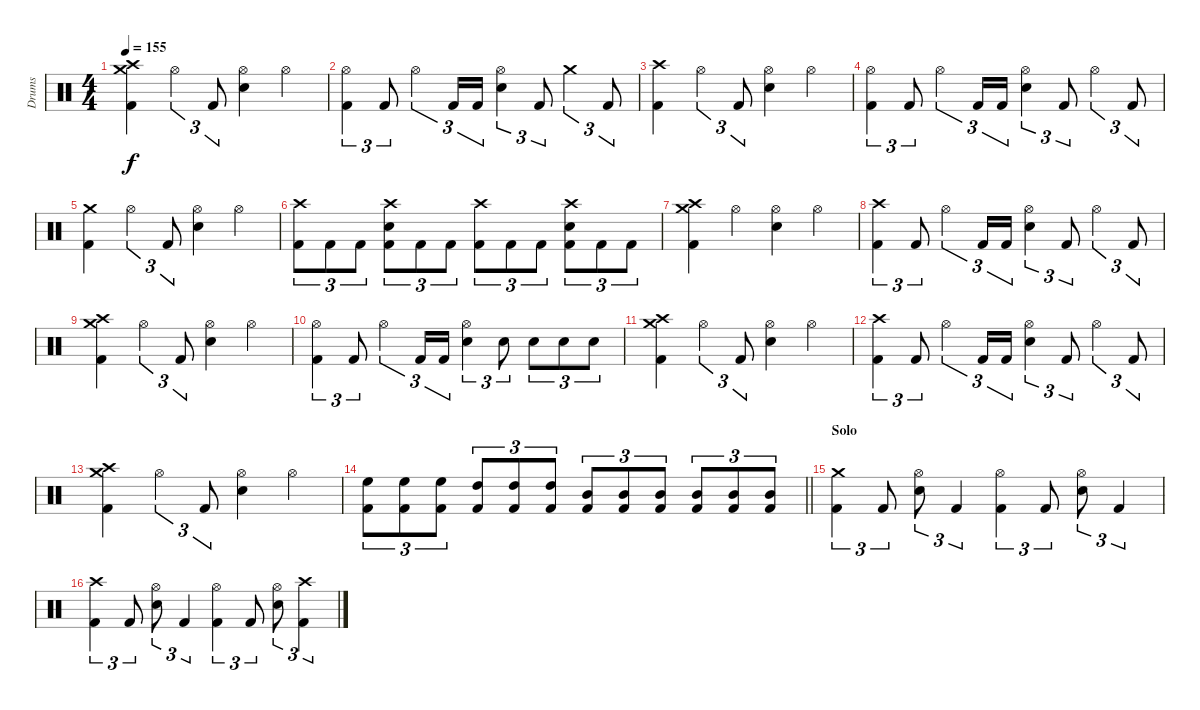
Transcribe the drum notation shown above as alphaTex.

\track ("Drums" "Drums") {instrument percussion}
\staff {score}
\articulation defaults
\ts (4 4)
\tempo 155
\clef neutral
\ks c
("Crash high (hit)" "Crash medium (hit)" "Kick (hit) 2").4{dy f} "Hi-Hat (open)".4{tu (3 2)} "Kick (hit) 2".8{tu (3 2)} ("Hi-Hat (open)" "Electric Snare (hit)").4 "Hi-Hat (open)".4 |
("Hi-Hat (open)" "Kick (hit) 2").4{tu (3 2)} "Kick (hit) 2".8{tu (3 2)} "Hi-Hat (open)".4{tu (3 2)} "Kick (hit) 2".16{tu (3 2)} "Kick (hit) 2".16{tu (3 2)} ("Hi-Hat (open)" "Electric Snare (hit)").4{tu (3 2)} "Kick (hit) 2".8{tu (3 2)} "Crash medium (hit)".4{tu (3 2)} "Kick (hit) 2".8{tu (3 2)} |
("Crash high (hit)" "Kick (hit) 2").4 "Hi-Hat (open)".4{tu (3 2)} "Kick (hit) 2".8{tu (3 2)} ("Hi-Hat (open)" "Electric Snare (hit)").4 "Hi-Hat (open)".4 |
("Hi-Hat (open)" "Kick (hit) 2").4{tu (3 2)} "Kick (hit) 2".8{tu (3 2)} "Hi-Hat (open)".4{tu (3 2)} "Kick (hit) 2".16{tu (3 2)} "Kick (hit) 2".16{tu (3 2)} ("Hi-Hat (open)" "Electric Snare (hit)").4{tu (3 2)} "Kick (hit) 2".8{tu (3 2)} "Hi-Hat (open)".4{tu (3 2)} "Kick (hit) 2".8{tu (3 2)} |
("Crash medium (hit)" "Kick (hit) 2").4 "Hi-Hat (open)".4{tu (3 2)} "Kick (hit) 2".8{tu (3 2)} ("Hi-Hat (open)" "Electric Snare (hit)").4 "Hi-Hat (open)".4 |
("Crash high (hit)" "Kick (hit) 2").8{tu (3 2)} "Kick (hit) 2".8{tu (3 2)} "Kick (hit) 2".8{tu (3 2)} ("Crash high (hit)" "Electric Snare (hit)" "Kick (hit) 2").8{tu (3 2)} "Kick (hit) 2".8{tu (3 2)} "Kick (hit) 2".8{tu (3 2)} ("Crash high (hit)" "Kick (hit) 2").8{tu (3 2)} "Kick (hit) 2".8{tu (3 2)} "Kick (hit) 2".8{tu (3 2)} ("Crash high (hit)" "Electric Snare (hit)" "Kick (hit) 2").8{tu (3 2)} "Kick (hit) 2".8{tu (3 2)} "Kick (hit) 2".8{tu (3 2)} |
("Crash medium (hit)" "Crash high (hit)" "Kick (hit) 2").4 "Hi-Hat (open)".4 ("Hi-Hat (open)" "Electric Snare (hit)").4 "Hi-Hat (open)".4 |
("Crash high (hit)" "Kick (hit) 2").4{tu (3 2)} "Kick (hit) 2".8{tu (3 2)} "Hi-Hat (open)".4{tu (3 2)} "Kick (hit) 2".16{tu (3 2)} "Kick (hit) 2".16{tu (3 2)} ("Hi-Hat (open)" "Electric Snare (hit)").4{tu (3 2)} "Kick (hit) 2".8{tu (3 2)} "Hi-Hat (open)".4{tu (3 2)} "Kick (hit) 2".8{tu (3 2)} |
("Crash high (hit)" "Crash medium (hit)" "Kick (hit) 2").4 "Hi-Hat (open)".4{tu (3 2)} "Kick (hit) 2".8{tu (3 2)} ("Hi-Hat (open)" "Electric Snare (hit)").4 "Hi-Hat (open)".4 |
("Hi-Hat (open)" "Kick (hit) 2").4{tu (3 2)} "Kick (hit) 2".8{tu (3 2)} "Hi-Hat (open)".4{tu (3 2)} "Kick (hit) 2".16{tu (3 2)} "Kick (hit) 2".16{tu (3 2)} ("Hi-Hat (open)" "Electric Snare (hit)").4{tu (3 2)} "Electric Snare (hit)".8{tu (3 2)} "Electric Snare (hit)".8{tu (3 2)} "Electric Snare (hit)".8{tu (3 2)} "Electric Snare (hit)".8{tu (3 2)} |
("Crash medium (hit)" "Crash high (hit)" "Kick (hit) 2").4 "Hi-Hat (open)".4{tu (3 2)} "Kick (hit) 2".8{tu (3 2)} ("Hi-Hat (open)" "Electric Snare (hit)").4 "Hi-Hat (open)".4 |
("Crash high (hit)" "Kick (hit) 2").4{tu (3 2)} "Kick (hit) 2".8{tu (3 2)} "Hi-Hat (open)".4{tu (3 2)} "Kick (hit) 2".16{tu (3 2)} "Kick (hit) 2".16{tu (3 2)} ("Hi-Hat (open)" "Electric Snare (hit)").4{tu (3 2)} "Kick (hit) 2".8{tu (3 2)} "Hi-Hat (open)".4{tu (3 2)} "Kick (hit) 2".8{tu (3 2)} |
("Crash high (hit)" "Crash medium (hit)" "Kick (hit) 2").4 "Hi-Hat (open)".4{tu (3 2)} "Kick (hit) 2".8{tu (3 2)} ("Hi-Hat (open)" "Electric Snare (hit)").4 "Hi-Hat (open)".4 |
\barLineRight lightlight
("High Floor Tom (hit)" "Kick (hit) 2").8{tu (3 2)} ("High Floor Tom (hit)" "Kick (hit) 2").8{tu (3 2)} ("High Floor Tom (hit)" "Kick (hit) 2").8{tu (3 2)} ("High Tom (hit)" "Kick (hit) 2").8{tu (3 2)} ("High Tom (hit)" "Kick (hit) 2").8{tu (3 2)} ("High Tom (hit)" "Kick (hit) 2").8{tu (3 2)} ("Mid Tom (hit)" "Kick (hit) 2").8{tu (3 2)} ("Mid Tom (hit)" "Kick (hit) 2").8{tu (3 2)} ("Mid Tom (hit)" "Kick (hit) 2").8{tu (3 2)} ("Mid Tom (hit)" "Kick (hit) 2").8{tu (3 2)} ("Mid Tom (hit)" "Kick (hit) 2").8{tu (3 2)} ("Mid Tom (hit)" "Kick (hit) 2").8{tu (3 2)} |
\section ("" "Solo")
("Crash medium (hit)" "Kick (hit) 2").4{tu (3 2)} "Kick (hit) 2".8{tu (3 2)} ("Hi-Hat (open)" "Electric Snare (hit)").8{tu (3 2)} "Kick (hit) 2".4{tu (3 2)} ("Hi-Hat (open)" "Kick (hit) 2").4{tu (3 2)} "Kick (hit) 2".8{tu (3 2)} ("Hi-Hat (open)" "Electric Snare (hit)").8{tu (3 2)} "Kick (hit) 2".4{tu (3 2)} |
("Crash high (hit)" "Kick (hit) 2").4{tu (3 2)} "Kick (hit) 2".8{tu (3 2)} ("Hi-Hat (open)" "Electric Snare (hit)").8{tu (3 2)} "Kick (hit) 2".4{tu (3 2)} ("Hi-Hat (open)" "Kick (hit) 2").4{tu (3 2)} "Kick (hit) 2".8{tu (3 2)} ("Hi-Hat (open)" "Electric Snare (hit)").8{tu (3 2)} ("Crash high (hit)" "Kick (hit) 2").4{tu (3 2)}
